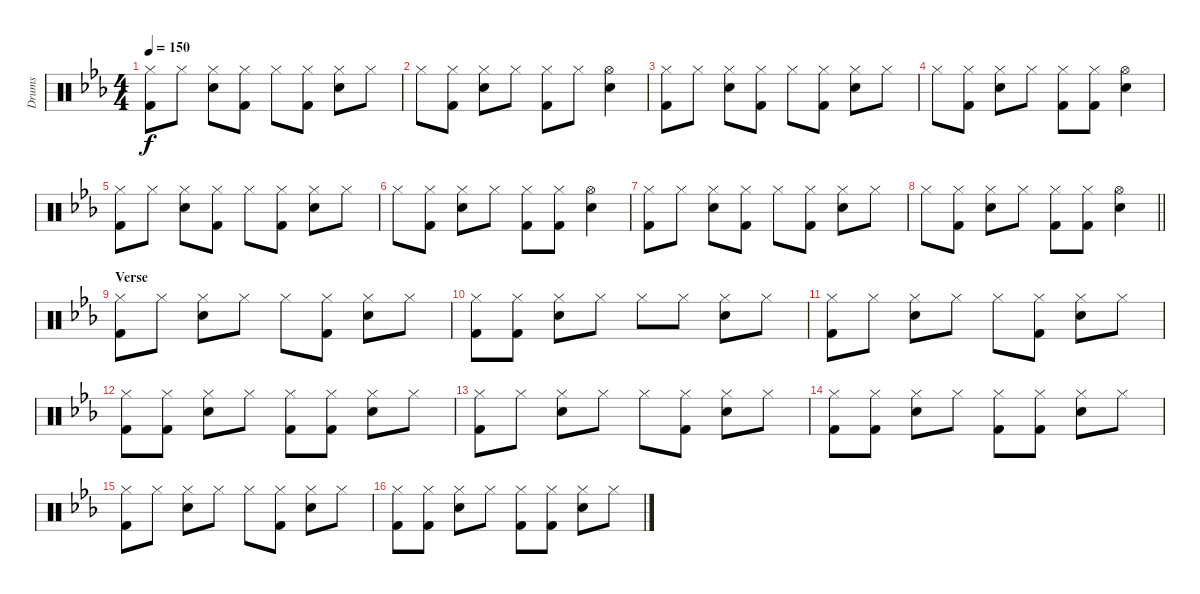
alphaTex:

\track ("Drums" "Drums") {instrument percussion}
\staff {score}
\articulation defaults
\ts (4 4)
\tempo 150
\clef neutral
\ks eb
("Hi-Hat (closed)" "Kick (hit) 2").8{dy f} "Hi-Hat (closed)".8 ("Hi-Hat (closed)" "Electric Snare (hit)").8 ("Hi-Hat (closed)" "Kick (hit) 2").8 "Hi-Hat (closed)".8 ("Hi-Hat (closed)" "Kick (hit) 2").8 ("Hi-Hat (closed)" "Electric Snare (hit)").8 "Hi-Hat (closed)".8 |
"Hi-Hat (closed)".8 ("Hi-Hat (closed)" "Kick (hit) 2").8 ("Hi-Hat (closed)" "Electric Snare (hit)").8 "Hi-Hat (closed)".8 ("Hi-Hat (closed)" "Kick (hit) 2").8 "Hi-Hat (closed)".8 ("Hi-Hat (open)" "Electric Snare (hit)").4 |
("Hi-Hat (closed)" "Kick (hit) 2").8 "Hi-Hat (closed)".8 ("Hi-Hat (closed)" "Electric Snare (hit)").8 ("Hi-Hat (closed)" "Kick (hit) 2").8 "Hi-Hat (closed)".8 ("Hi-Hat (closed)" "Kick (hit) 2").8 ("Hi-Hat (closed)" "Electric Snare (hit)").8 "Hi-Hat (closed)".8 |
"Hi-Hat (closed)".8 ("Hi-Hat (closed)" "Kick (hit) 2").8 ("Hi-Hat (closed)" "Electric Snare (hit)").8 "Hi-Hat (closed)".8 ("Hi-Hat (closed)" "Kick (hit) 2").8 ("Hi-Hat (closed)" "Kick (hit) 2").8 ("Hi-Hat (open)" "Electric Snare (hit)").4 |
("Hi-Hat (closed)" "Kick (hit) 2").8 "Hi-Hat (closed)".8 ("Hi-Hat (closed)" "Electric Snare (hit)").8 ("Hi-Hat (closed)" "Kick (hit) 2").8 "Hi-Hat (closed)".8 ("Hi-Hat (closed)" "Kick (hit) 2").8 ("Hi-Hat (closed)" "Electric Snare (hit)").8 "Hi-Hat (closed)".8 |
"Hi-Hat (closed)".8 ("Hi-Hat (closed)" "Kick (hit) 2").8 ("Hi-Hat (closed)" "Electric Snare (hit)").8 "Hi-Hat (closed)".8 ("Hi-Hat (closed)" "Kick (hit) 2").8 ("Hi-Hat (closed)" "Kick (hit) 2").8 ("Hi-Hat (open)" "Electric Snare (hit)").4 |
("Hi-Hat (closed)" "Kick (hit) 2").8 "Hi-Hat (closed)".8 ("Hi-Hat (closed)" "Electric Snare (hit)").8 ("Hi-Hat (closed)" "Kick (hit) 2").8 "Hi-Hat (closed)".8 ("Hi-Hat (closed)" "Kick (hit) 2").8 ("Hi-Hat (closed)" "Electric Snare (hit)").8 "Hi-Hat (closed)".8 |
\barLineRight lightlight "Hi-Hat (closed)".8
("Hi-Hat (closed)" "Kick (hit) 2").8 ("Hi-Hat (closed)" "Electric Snare (hit)").8 "Hi-Hat (closed)".8 ("Hi-Hat (closed)" "Kick (hit) 2").8 ("Hi-Hat (closed)" "Kick (hit) 2").8 ("Hi-Hat (open)" "Electric Snare (hit)").4 |
\section ("" "Verse")
("Hi-Hat (closed)" "Kick (hit) 2").8 "Hi-Hat (closed)".8 ("Hi-Hat (closed)" "Electric Snare (hit)").8 "Hi-Hat (closed)".8 "Hi-Hat (closed)".8 ("Hi-Hat (closed)" "Kick (hit) 2").8 ("Hi-Hat (closed)" "Electric Snare (hit)").8 "Hi-Hat (closed)".8 |
("Hi-Hat (closed)" "Kick (hit) 2").8 ("Hi-Hat (closed)" "Kick (hit) 2").8 ("Hi-Hat (closed)" "Electric Snare (hit)").8 "Hi-Hat (closed)".8 "Hi-Hat (closed)".8 "Hi-Hat (closed)".8 ("Hi-Hat (closed)" "Electric Snare (hit)").8 "Hi-Hat (closed)".8 |
("Hi-Hat (closed)" "Kick (hit) 2").8 "Hi-Hat (closed)".8 ("Hi-Hat (closed)" "Electric Snare (hit)").8 "Hi-Hat (closed)".8 "Hi-Hat (closed)".8 ("Hi-Hat (closed)" "Kick (hit) 2").8 ("Hi-Hat (closed)" "Electric Snare (hit)").8 "Hi-Hat (closed)".8 |
("Hi-Hat (closed)" "Kick (hit) 2").8 ("Hi-Hat (closed)" "Kick (hit) 2").8 ("Hi-Hat (closed)" "Electric Snare (hit)").8 "Hi-Hat (closed)".8 ("Hi-Hat (closed)" "Kick (hit) 2").8 ("Hi-Hat (closed)" "Kick (hit) 2").8 ("Hi-Hat (closed)" "Electric Snare (hit)").8 "Hi-Hat (closed)".8 |
("Hi-Hat (closed)" "Kick (hit) 2").8 "Hi-Hat (closed)".8 ("Hi-Hat (closed)" "Electric Snare (hit)").8 "Hi-Hat (closed)".8 "Hi-Hat (closed)".8 ("Hi-Hat (closed)" "Kick (hit) 2").8 ("Hi-Hat (closed)" "Electric Snare (hit)").8 "Hi-Hat (closed)".8 |
("Hi-Hat (closed)" "Kick (hit) 2").8 ("Hi-Hat (closed)" "Kick (hit) 2").8 ("Hi-Hat (closed)" "Electric Snare (hit)").8 "Hi-Hat (closed)".8 ("Hi-Hat (closed)" "Kick (hit) 2").8 ("Hi-Hat (closed)" "Kick (hit) 2").8 ("Hi-Hat (closed)" "Electric Snare (hit)").8 "Hi-Hat (closed)".8 |
("Hi-Hat (closed)" "Kick (hit) 2").8 "Hi-Hat (closed)".8 ("Hi-Hat (closed)" "Electric Snare (hit)").8 "Hi-Hat (closed)".8 "Hi-Hat (closed)".8 ("Hi-Hat (closed)" "Kick (hit) 2").8 ("Hi-Hat (closed)" "Electric Snare (hit)").8 "Hi-Hat (closed)".8 |
("Hi-Hat (closed)" "Kick (hit) 2").8 ("Hi-Hat (closed)" "Kick (hit) 2").8 ("Hi-Hat (closed)" "Electric Snare (hit)").8 "Hi-Hat (closed)".8 ("Hi-Hat (closed)" "Kick (hit) 2").8 ("Hi-Hat (closed)" "Kick (hit) 2").8 ("Hi-Hat (closed)" "Electric Snare (hit)").8 "Hi-Hat (closed)".8
